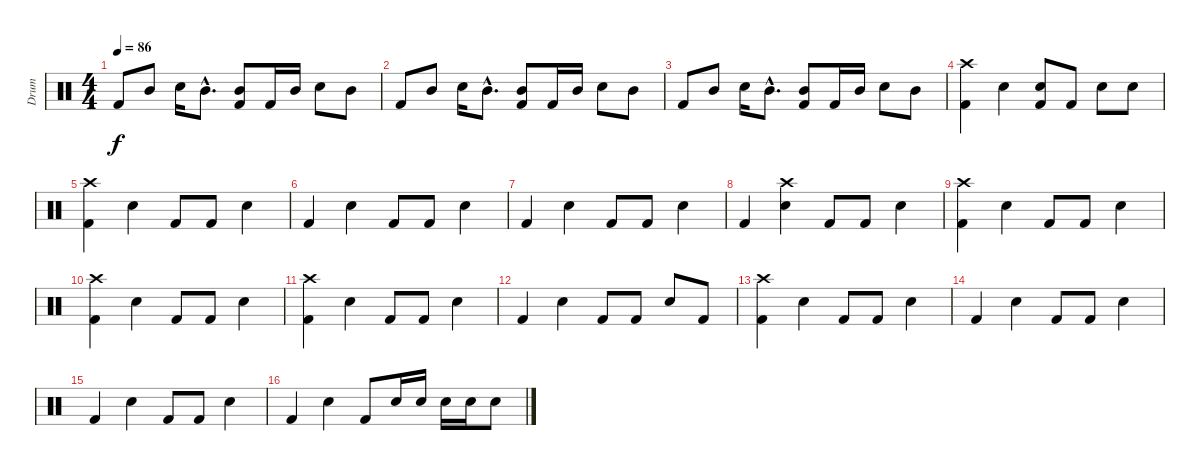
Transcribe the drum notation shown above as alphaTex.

\track ("Drum" "Drum") {instrument percussion}
\staff {score}
\articulation defaults
\ts (4 4)
\tempo 86
\clef neutral
\ks c "Kick (hit) 2".8{dy f} "Mid Tom (hit)".8 "Electric Snare (hit)".16 "Mid Tom (hit)"{hac}.8{d}
("Mid Tom (hit)" "Kick (hit) 2").8 "Kick (hit) 2".16 "Mid Tom (hit)".16 "Electric Snare (hit)".8 "Mid Tom (hit)".8 |
"Kick (hit) 2".8 "Mid Tom (hit)".8 "Electric Snare (hit)".16 "Mid Tom (hit)"{hac}.8{d} ("Mid Tom (hit)" "Kick (hit) 2").8 "Kick (hit) 2".16 "Mid Tom (hit)".16 "Electric Snare (hit)".8 "Mid Tom (hit)".8 |
"Kick (hit) 2".8 "Mid Tom (hit)".8 "Electric Snare (hit)".16 "Mid Tom (hit)"{hac}.8{d} ("Mid Tom (hit)" "Kick (hit) 2").8 "Kick (hit) 2".16 "Mid Tom (hit)".16 "Electric Snare (hit)".8 "Mid Tom (hit)".8 |
("Crash high (hit)" "Kick (hit) 2").4 "Electric Snare (hit)".4 ("Electric Snare (hit)" "Kick (hit) 2").8 "Kick (hit) 2".8 "Electric Snare (hit)".8 "Electric Snare (hit)".8 |
("Crash high (hit)" "Kick (hit) 2").4 "Electric Snare (hit)".4 "Kick (hit) 2".8 "Kick (hit) 2".8 "Electric Snare (hit)".4 |
"Kick (hit) 2".4 "Electric Snare (hit)".4 "Kick (hit) 2".8 "Kick (hit) 2".8 "Electric Snare (hit)".4 |
"Kick (hit) 2".4 "Electric Snare (hit)".4 "Kick (hit) 2".8 "Kick (hit) 2".8 "Electric Snare (hit)".4 |
"Kick (hit) 2".4 ("Crash high (hit)" "Electric Snare (hit)").4 "Kick (hit) 2".8 "Kick (hit) 2".8 "Electric Snare (hit)".4 |
("Crash high (hit)" "Kick (hit) 2").4 "Electric Snare (hit)".4 "Kick (hit) 2".8 "Kick (hit) 2".8 "Electric Snare (hit)".4 |
("Crash high (hit)" "Kick (hit) 2").4 "Electric Snare (hit)".4 "Kick (hit) 2".8 "Kick (hit) 2".8 "Electric Snare (hit)".4 |
("Crash high (hit)" "Kick (hit) 2").4 "Electric Snare (hit)".4 "Kick (hit) 2".8 "Kick (hit) 2".8 "Electric Snare (hit)".4 |
"Kick (hit) 2".4 "Electric Snare (hit)".4 "Kick (hit) 2".8 "Kick (hit) 2".8 "Electric Snare (hit)".8 "Kick (hit) 2".8 |
("Crash high (hit)" "Kick (hit) 2").4 "Electric Snare (hit)".4 "Kick (hit) 2".8 "Kick (hit) 2".8 "Electric Snare (hit)".4 |
"Kick (hit) 2".4 "Electric Snare (hit)".4 "Kick (hit) 2".8 "Kick (hit) 2".8 "Electric Snare (hit)".4 |
"Kick (hit) 2".4 "Electric Snare (hit)".4 "Kick (hit) 2".8 "Kick (hit) 2".8 "Electric Snare (hit)".4 |
"Kick (hit) 2".4 "Electric Snare (hit)".4 "Kick (hit) 2".8 "Electric Snare (hit)".16 "Electric Snare (hit)".16 "Electric Snare (hit)".16 "Electric Snare (hit)".16 "Electric Snare (hit)".8
